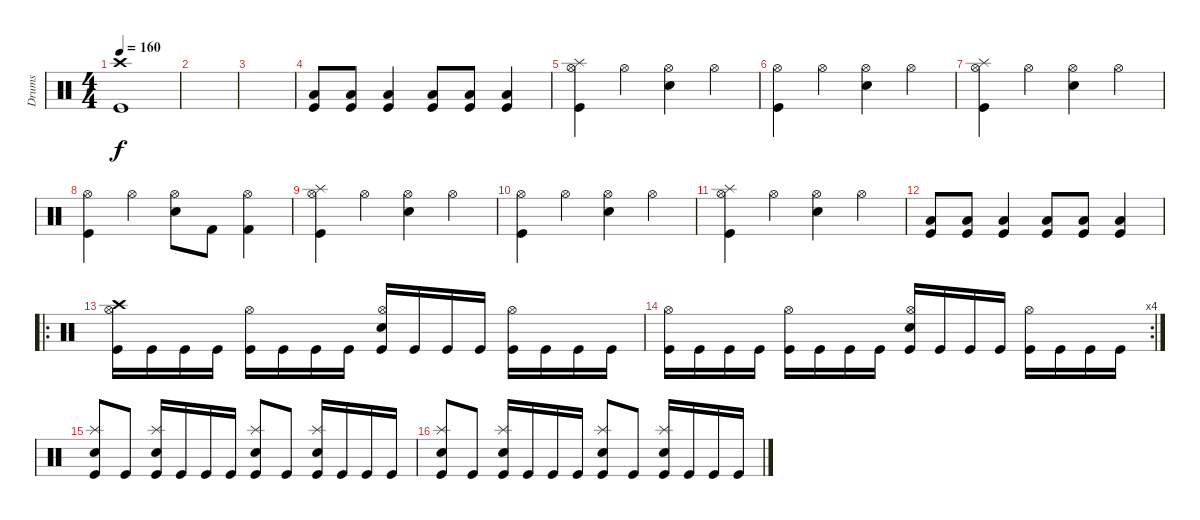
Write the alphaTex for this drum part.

\track ("Drums" "Drums") {instrument percussion}
\staff {score}
\articulation defaults
\ts (4 4)
\tempo 160
\clef neutral
\ks c
("Crash high (hit)" "Kick (hit)").1{dy f} |
|
|
("Low Floor Tom (hit)" "Kick (hit)").8 ("Low Floor Tom (hit)" "Kick (hit)").8 ("Low Floor Tom (hit)" "Kick (hit)").4 ("Low Floor Tom (hit)" "Kick (hit)").8 ("Low Floor Tom (hit)" "Kick (hit)").8 ("Low Floor Tom (hit)" "Kick (hit)").4 |
("Splash (hit)" "Hi-Hat (open)" "Kick (hit)").4 "Hi-Hat (open)".4 ("Hi-Hat (open)" "Snare (hit) 2").4 "Hi-Hat (open)".4 |
("Hi-Hat (open)" "Kick (hit)").4 "Hi-Hat (open)".4 ("Hi-Hat (open)" "Snare (hit) 2").4 "Hi-Hat (open)".4 |
("Splash (hit)" "Hi-Hat (open)" "Kick (hit)").4 "Hi-Hat (open)".4 ("Hi-Hat (open)" "Snare (hit) 2").4 "Hi-Hat (open)".4 |
("Hi-Hat (open)" "Kick (hit)").4 "Hi-Hat (open)".4 ("Hi-Hat (open)" "Snare (hit) 2").8 "Kick (hit) 2".8 ("Hi-Hat (open)" "Kick (hit) 2").4 |
("Splash (hit)" "Hi-Hat (open)" "Kick (hit)").4 "Hi-Hat (open)".4 ("Hi-Hat (open)" "Snare (hit) 2").4 "Hi-Hat (open)".4 |
("Hi-Hat (open)" "Kick (hit)").4 "Hi-Hat (open)".4 ("Hi-Hat (open)" "Snare (hit) 2").4 "Hi-Hat (open)".4 |
("Splash (hit)" "Hi-Hat (open)" "Kick (hit)").4 "Hi-Hat (open)".4 ("Hi-Hat (open)" "Snare (hit) 2").4 "Hi-Hat (open)".4 |
("Low Floor Tom (hit)" "Kick (hit)").8 ("Low Floor Tom (hit)" "Kick (hit)").8 ("Low Floor Tom (hit)" "Kick (hit)").4 ("Low Floor Tom (hit)" "Kick (hit)").8 ("Low Floor Tom (hit)" "Kick (hit)").8 ("Low Floor Tom (hit)" "Kick (hit)").4 |
\ro
("Crash high (hit)" "Hi-Hat (open)" "Kick (hit)").16 "Kick (hit)".16 "Kick (hit)".16 "Kick (hit)".16 ("Hi-Hat (open)" "Kick (hit)").16 "Kick (hit)".16 "Kick (hit)".16 "Kick (hit)".16 ("Hi-Hat (open)" "Snare (hit) 2" "Kick (hit)").16 "Kick (hit)".16 "Kick (hit)".16 "Kick (hit)".16 ("Hi-Hat (open)" "Kick (hit)").16 "Kick (hit)".16 "Kick (hit)".16 "Kick (hit)".16 |
\rc 4
("Hi-Hat (open)" "Kick (hit)").16 "Kick (hit)".16 "Kick (hit)".16 "Kick (hit)".16 ("Hi-Hat (open)" "Kick (hit)").16 "Kick (hit)".16 "Kick (hit)".16 "Kick (hit)".16 ("Hi-Hat (open)" "Snare (hit) 2" "Kick (hit)").16 "Kick (hit)".16 "Kick (hit)".16 "Kick (hit)".16 ("Hi-Hat (open)" "Kick (hit)").16 "Kick (hit)".16 "Kick (hit)".16 "Kick (hit)".16 |
("Splash (hit)" "Snare (hit) 2" "Kick (hit)").8 "Kick (hit)".8 ("Splash (hit)" "Snare (hit) 2" "Kick (hit)").16 "Kick (hit)".16 "Kick (hit)".16 "Kick (hit)".16 ("Splash (hit)" "Snare (hit) 2" "Kick (hit)").8 "Kick (hit)".8 ("Splash (hit)" "Snare (hit) 2" "Kick (hit)").16 "Kick (hit)".16 "Kick (hit)".16 "Kick (hit)".16 |
("Splash (hit)" "Snare (hit) 2" "Kick (hit)").8 "Kick (hit)".8 ("Splash (hit)" "Snare (hit) 2" "Kick (hit)").16 "Kick (hit)".16 "Kick (hit)".16 "Kick (hit)".16 ("Splash (hit)" "Snare (hit) 2" "Kick (hit)").8 "Kick (hit)".8 ("Splash (hit)" "Snare (hit) 2" "Kick (hit)").16 "Kick (hit)".16 "Kick (hit)".16 "Kick (hit)".16
